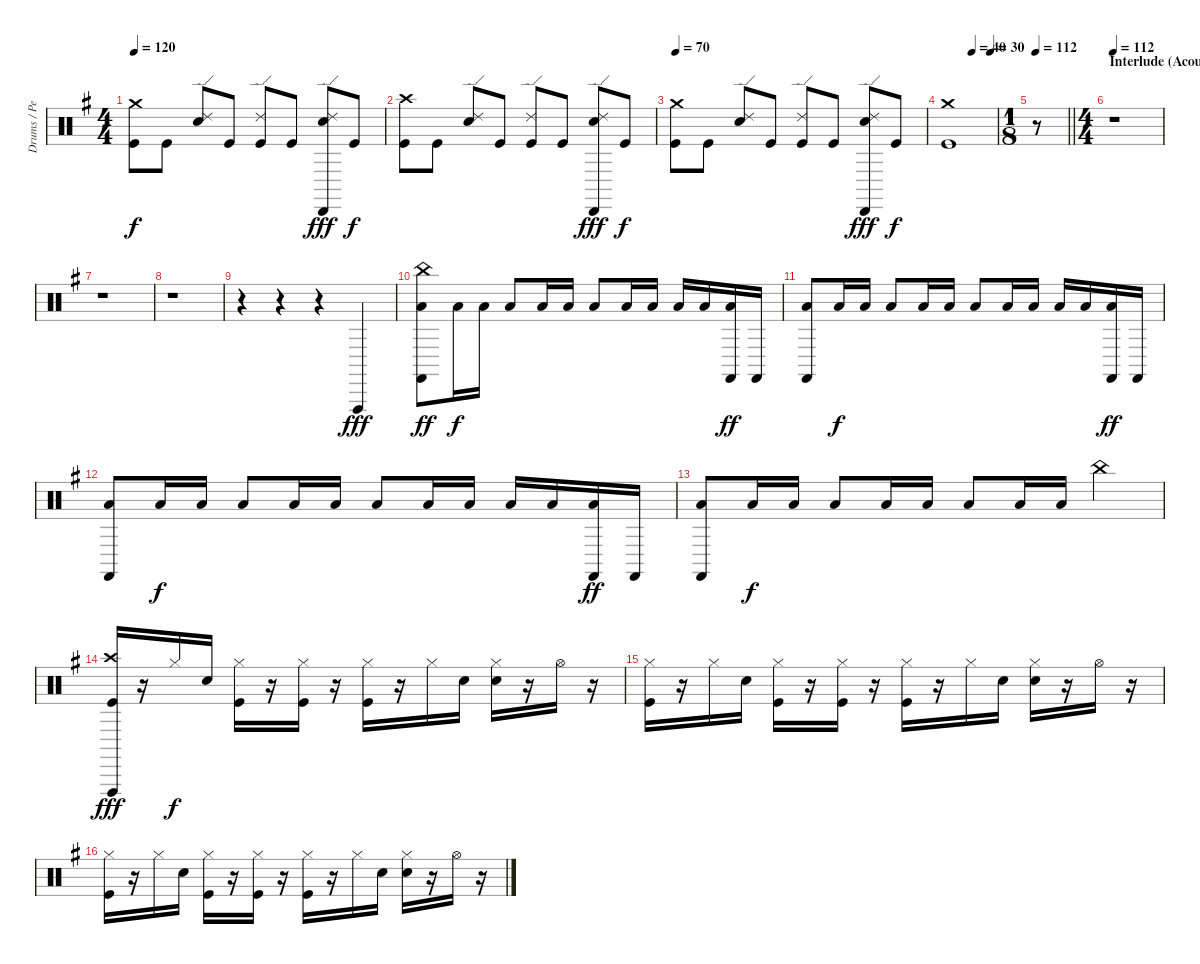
\track ("Drums / Percussion" "Drums / Pe") {instrument percussion}
\staff {score}
\articulation defaults
\ts (4 4)
\tempo 120
\clef neutral
\ks eminor
("Crash medium (hit)" "Kick (hit)").8{dy f} "Kick (hit)".8 ("Ride (edge) 2" "Snare (hit) 2").8 "Kick (hit)".8 ("Ride (edge) 2" "Kick (hit)").8 "Kick (hit)".8 ("Ride (edge) 2" "Cabasa (hit)" "Snare (hit) 2").8{dy fff} "Kick (hit)".8{dy f} |
("Crash high (hit)" "Kick (hit)").8 "Kick (hit)".8 ("Ride (edge) 2" "Snare (hit) 2").8 "Kick (hit)".8 ("Ride (edge) 2" "Kick (hit)").8 "Kick (hit)".8 ("Ride (edge) 2" "Cabasa (hit)" "Snare (hit) 2").8{dy fff} "Kick (hit)".8{dy f} |
\tempo 70
("Crash medium (hit)" "Kick (hit)").8 "Kick (hit)".8 ("Ride (edge) 2" "Snare (hit) 2").8 "Kick (hit)".8 ("Ride (edge) 2" "Kick (hit)").8 "Kick (hit)".8 ("Ride (edge) 2" "Cabasa (hit)" "Snare (hit) 2").8{dy fff} "Kick (hit)".8{dy f} |
\tempo (40 0.5)
\tempo (30 0.875)
("Crash medium (hit)" "Kick (hit)").1 |
\ts (1 8)
\tempo 112
\barLineRight lightlight
r.8 |
\ts (4 4)
\section ("" "Interlude (Acoustic)")
\tempo 112
r.1 |
r.1 |
r.1 |
r.4 r.4 r.4 "Vibraslap (hit)".4{dy fff} |
("China (hit)" "Castanets (hit)" "Low Floor Tom (hit)").8{dy ff volume 11} "Low Floor Tom (hit)".16{dy f} "Low Floor Tom (hit)".16 "Low Floor Tom (hit)".8 "Low Floor Tom (hit)".16 "Low Floor Tom (hit)".16 "Low Floor Tom (hit)".8 "Low Floor Tom (hit)".16 "Low Floor Tom (hit)".16 "Low Floor Tom (hit)".16 "Low Floor Tom (hit)".16 ("Castanets (hit)" "Low Floor Tom (hit)").16{dy ff} "Castanets (hit)".16 |
("Castanets (hit)" "Low Floor Tom (hit)").8 "Low Floor Tom (hit)".16{dy f} "Low Floor Tom (hit)".16 "Low Floor Tom (hit)".8 "Low Floor Tom (hit)".16 "Low Floor Tom (hit)".16 "Low Floor Tom (hit)".8 "Low Floor Tom (hit)".16 "Low Floor Tom (hit)".16 "Low Floor Tom (hit)".16 "Low Floor Tom (hit)".16 ("Castanets (hit)" "Low Floor Tom (hit)").16{dy ff} "Castanets (hit)".16 |
("Castanets (hit)" "Low Floor Tom (hit)").8 "Low Floor Tom (hit)".16{dy f} "Low Floor Tom (hit)".16 "Low Floor Tom (hit)".8 "Low Floor Tom (hit)".16 "Low Floor Tom (hit)".16 "Low Floor Tom (hit)".8 "Low Floor Tom (hit)".16 "Low Floor Tom (hit)".16 "Low Floor Tom (hit)".16 "Low Floor Tom (hit)".16 ("Castanets (hit)" "Low Floor Tom (hit)").16{dy ff} "Castanets (hit)".16 |
("Castanets (hit)" "Low Floor Tom (hit)").8 "Low Floor Tom (hit)".16{dy f} "Low Floor Tom (hit)".16 "Low Floor Tom (hit)".8 "Low Floor Tom (hit)".16 "Low Floor Tom (hit)".16 "Low Floor Tom (hit)".8 "Low Floor Tom (hit)".16 "Low Floor Tom (hit)".16 "China (hit)".4 |
("Crash high (hit)" "Vibraslap (hit)" "Kick (hit)").16{dy fff} r.16 "Hi-Hat (closed)".16{dy f} "Snare (hit) 2".16 ("Hi-Hat (closed)" "Kick (hit)").16 r.16 ("Hi-Hat (closed)" "Kick (hit)").16 r.16 ("Hi-Hat (closed)" "Kick (hit)").16 r.16 "Hi-Hat (closed)".16 "Snare (hit) 2".16 ("Hi-Hat (closed)" "Snare (hit) 2").16 r.16 "Hi-Hat (open)".16 r.16 |
("Hi-Hat (closed)" "Kick (hit)").16 r.16 "Hi-Hat (closed)".16 "Snare (hit) 2".16 ("Hi-Hat (closed)" "Kick (hit)").16 r.16 ("Hi-Hat (closed)" "Kick (hit)").16 r.16 ("Hi-Hat (closed)" "Kick (hit)").16 r.16 "Hi-Hat (closed)".16 "Snare (hit) 2".16 ("Hi-Hat (closed)" "Snare (hit) 2").16 r.16 "Hi-Hat (open)".16 r.16 |
("Hi-Hat (closed)" "Kick (hit)").16 r.16 "Hi-Hat (closed)".16 "Snare (hit) 2".16 ("Hi-Hat (closed)" "Kick (hit)").16 r.16 ("Hi-Hat (closed)" "Kick (hit)").16 r.16 ("Hi-Hat (closed)" "Kick (hit)").16 r.16 "Hi-Hat (closed)".16 "Snare (hit) 2".16 ("Hi-Hat (closed)" "Snare (hit) 2").16 r.16 "Hi-Hat (open)".16 r.16
